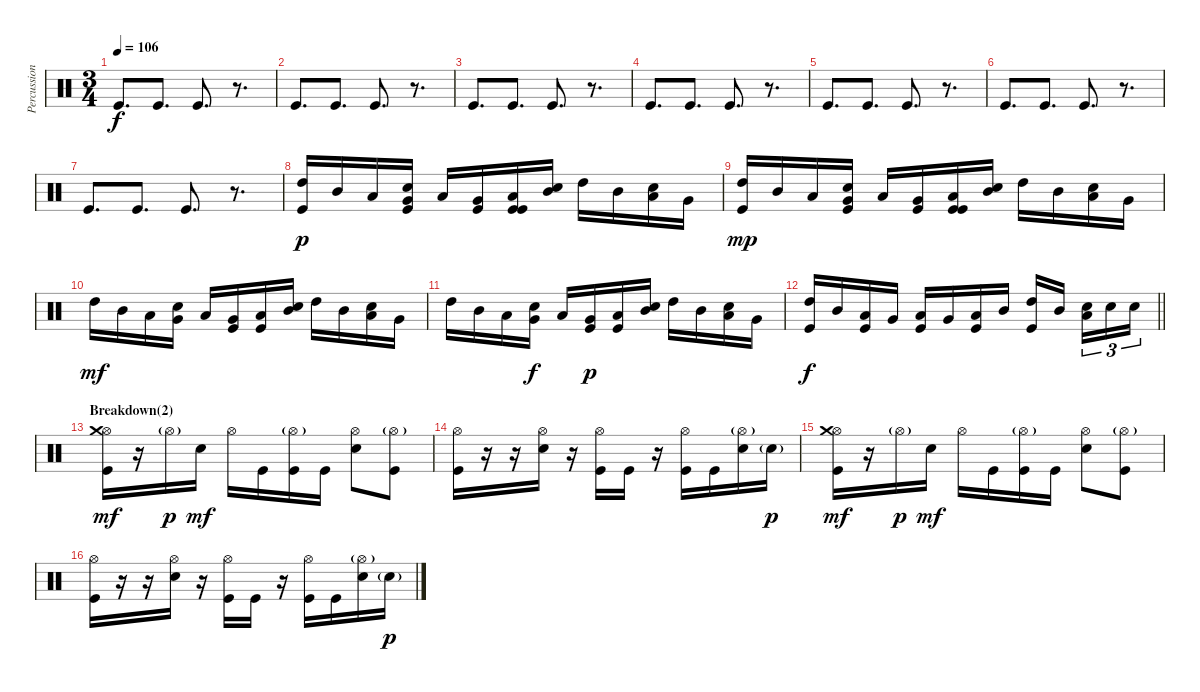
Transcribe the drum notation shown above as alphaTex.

\track ("Percussion" "Percussion") {instrument percussion}
\staff {score}
\articulation defaults
\ts (3 4)
\tempo 106
\clef neutral
\ks c "Kick (hit)".8{d dy f} "Kick (hit)".8{d} "Kick (hit)".8{d}
r.8{d} |
"Kick (hit)".8{d} "Kick (hit)".8{d} "Kick (hit)".8{d} r.8{d} |
"Kick (hit)".8{d} "Kick (hit)".8{d} "Kick (hit)".8{d} r.8{d} |
"Kick (hit)".8{d} "Kick (hit)".8{d} "Kick (hit)".8{d} r.8{d} |
"Kick (hit)".8{d} "Kick (hit)".8{d} "Kick (hit)".8{d} r.8{d} |
"Kick (hit)".8{d} "Kick (hit)".8{d} "Kick (hit)".8{d} r.8{d} |
"Kick (hit)".8{d} "Kick (hit)".8{d} "Kick (hit)".8{d} r.8{d} |
("Kick (hit)" "High Tom (hit)").16{dy p} "Mid Tom (hit)".16 "Low Tom (hit)".16 ("Snare (hit) 2" "Kick (hit)" "Very Low Tom (hit)").16 "Low Floor Tom (hit)".16 ("Kick (hit)" "Very Low Tom (hit)").16 ("Kick (hit)" "Kick (hit)" "Low Tom (hit)").16 ("Snare (hit) 2" "Mid Tom (hit)").16 "High Tom (hit)".16 "Mid Tom (hit)".16 ("Snare (hit) 2" "Low Floor Tom (hit)").16 "Very Low Tom (hit)".16 |
("Kick (hit)" "High Tom (hit)").16{dy mp} "Mid Tom (hit)".16 "Low Tom (hit)".16 ("Snare (hit) 2" "Kick (hit)" "Very Low Tom (hit)").16 "Low Floor Tom (hit)".16 ("Kick (hit)" "Very Low Tom (hit)").16 ("Kick (hit)" "Kick (hit)" "Low Tom (hit)").16 ("Snare (hit) 2" "Mid Tom (hit)").16 "High Tom (hit)".16 "Mid Tom (hit)".16 ("Snare (hit) 2" "Low Floor Tom (hit)").16 "Very Low Tom (hit)".16 |
"High Tom (hit)".16{dy mf} "Mid Tom (hit)".16 "Low Tom (hit)".16 ("Snare (hit) 2" "Very Low Tom (hit)").16 "Low Floor Tom (hit)".16 ("Kick (hit)" "Very Low Tom (hit)").16 ("Kick (hit)" "Low Tom (hit)").16 ("Snare (hit) 2" "Mid Tom (hit)").16 "High Tom (hit)".16 "Mid Tom (hit)".16 ("Snare (hit) 2" "Low Floor Tom (hit)").16 "Very Low Tom (hit)".16 |
"High Tom (hit)".16 "Mid Tom (hit)".16 "Low Tom (hit)".16 ("Snare (hit) 2" "Very Low Tom (hit)").16{dy f} "Low Floor Tom (hit)".16 ("Kick (hit)" "Very Low Tom (hit)").16{dy p} ("Kick (hit)" "Low Tom (hit)").16 ("Snare (hit) 2" "Mid Tom (hit)").16 "High Tom (hit)".16 "Mid Tom (hit)".16 ("Snare (hit) 2" "Low Floor Tom (hit)").16 "Very Low Tom (hit)".16 |
\barLineRight lightlight
("Kick (hit)" "High Tom (hit)").16{dy f} "Mid Tom (hit)".16 ("Kick (hit)" "Low Tom (hit)").16 "Very Low Tom (hit)".16 ("Kick (hit)" "Low Floor Tom (hit)").16 "Very Low Tom (hit)".16 ("Kick (hit)" "Low Tom (hit)").16 "Mid Tom (hit)".16 ("Kick (hit)" "High Tom (hit)").16 "Mid Tom (hit)".16{beam splitsecondary} ("Snare (hit) 2" "Low Floor Tom (hit)").16{tu (3 2)} "Snare (hit) 2".16{tu (3 2)} "Snare (hit) 2".16{tu (3 2)} |
\section ("" "Breakdown(2)")
("Hi-Hat (open)" "Crash medium (hit)" "Kick (hit)").16{dy mf} r.16 "Hi-Hat (open)"{g}.16{dy p} "Snare (hit) 2".16{dy mf} "Hi-Hat (open)".16 "Kick (hit)".16 ("Hi-Hat (open)"{g} "Kick (hit)").16 "Kick (hit)".16 ("Hi-Hat (open)" "Snare (hit) 2").8 ("Hi-Hat (open)"{g} "Kick (hit)").8 |
("Hi-Hat (open)" "Kick (hit)").16 r.16 r.16 ("Hi-Hat (open)" "Snare (hit) 2").16 r.16 ("Hi-Hat (open)" "Kick (hit)").16 "Kick (hit)".16 r.16 ("Hi-Hat (open)" "Kick (hit)").16 "Kick (hit)".16 ("Hi-Hat (open)"{g} "Snare (hit) 2").16 "Snare (hit) 2"{g}.16{dy p} |
("Hi-Hat (open)" "Crash medium (hit)" "Kick (hit)").16{dy mf} r.16 "Hi-Hat (open)"{g}.16{dy p} "Snare (hit) 2".16{dy mf} "Hi-Hat (open)".16 "Kick (hit)".16 ("Hi-Hat (open)"{g} "Kick (hit)").16 "Kick (hit)".16 ("Hi-Hat (open)" "Snare (hit) 2").8 ("Hi-Hat (open)"{g} "Kick (hit)").8 |
("Hi-Hat (open)" "Kick (hit)").16 r.16 r.16 ("Hi-Hat (open)" "Snare (hit) 2").16 r.16 ("Hi-Hat (open)" "Kick (hit)").16 "Kick (hit)".16 r.16 ("Hi-Hat (open)" "Kick (hit)").16 "Kick (hit)".16 ("Hi-Hat (open)"{g} "Snare (hit) 2").16 "Snare (hit) 2"{g}.16{dy p}
